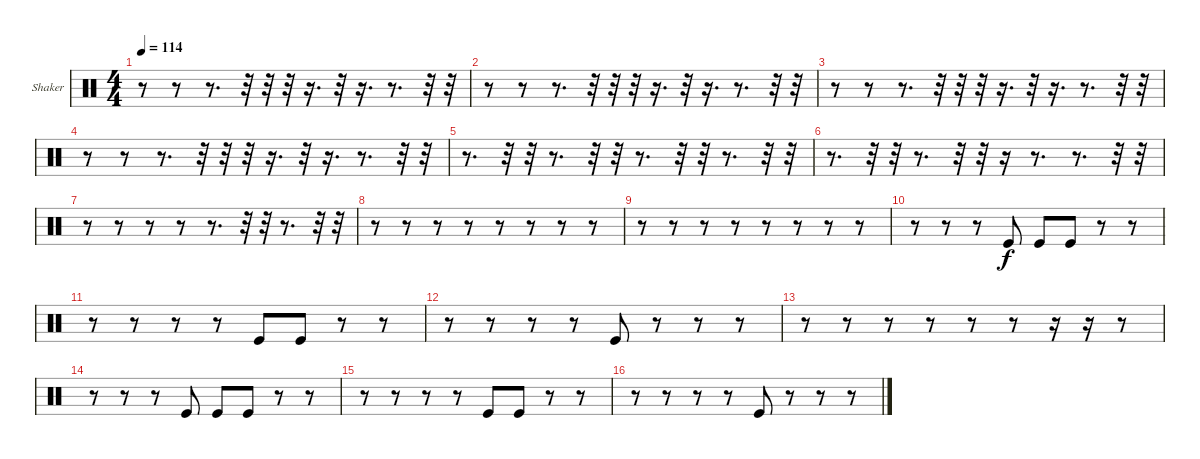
\bracketExtendMode groupsimilarinstruments
\firstSystemTrackNameOrientation horizontal
\otherSystemsTrackNameOrientation horizontal
\track ("Shaker" "Shaker") {instrument percussion}
\staff {score}
\articulation defaults
\ts (4 4)
\tempo 114
\clef neutral
\ks c
r.8{dy f} r.8 r.8{d} r.32 r.32 r.32 r.16{d} r.32 r.16{d} r.8{d} r.32 r.32 |
r.8 r.8 r.8{d} r.32 r.32 r.32 r.16{d} r.32 r.16{d} r.8{d} r.32 r.32 |
r.8 r.8 r.8{d} r.32 r.32 r.32 r.16{d} r.32 r.16{d} r.8{d} r.32 r.32 |
r.8 r.8 r.8{d} r.32 r.32 r.32 r.16{d} r.32 r.16{d} r.8{d} r.32 r.32 |
r.8{d} r.32 r.32 r.8{d} r.32 r.32 r.8{d} r.32 r.32 r.8{d} r.32 r.32 |
r.8{d} r.32 r.32 r.8{d} r.32 r.32 r.16 r.8{d} r.8{d} r.32 r.32 |
r.8 r.8 r.8 r.8 r.8{d} r.32 r.32 r.8{d} r.32 r.32 |
r.8 r.8 r.8 r.8 r.8 r.8 r.8 r.8 |
r.8 r.8 r.8 r.8 r.8 r.8 r.8 r.8 |
r.8 r.8 r.8 "Kick (hit)".8 "Kick (hit)".8 "Kick (hit)".8 r.8 r.8 |
r.8 r.8 r.8 r.8 "Kick (hit)".8 "Kick (hit)".8 r.8 r.8 |
r.8 r.8 r.8 r.8 "Kick (hit)".8 r.8 r.8 r.8 |
r.8 r.8 r.8 r.8 r.8 r.8 r.16 r.16 r.8 |
r.8 r.8 r.8 "Kick (hit)".8 "Kick (hit)".8 "Kick (hit)".8 r.8 r.8 |
r.8 r.8 r.8 r.8 "Kick (hit)".8 "Kick (hit)".8 r.8 r.8 |
r.8 r.8 r.8 r.8 "Kick (hit)".8 r.8 r.8 r.8
